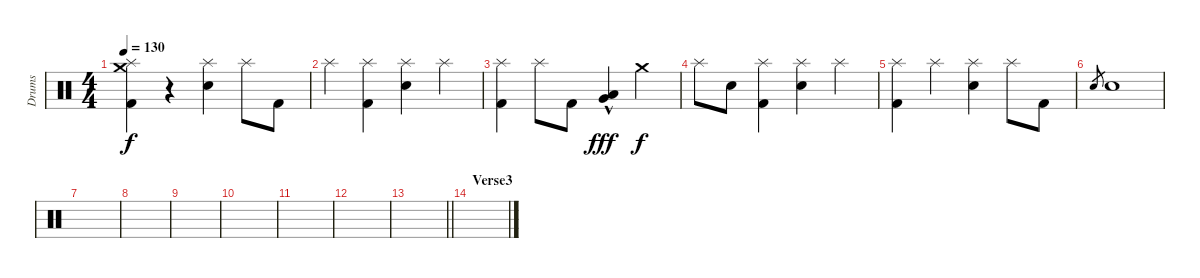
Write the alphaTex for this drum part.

\track ("Drums" "Drums") {instrument percussion}
\staff {score}
\articulation defaults
\ts (4 4)
\tempo 130
\clef neutral
\ks c
("Kick (hit) 2" "Splash (hit)" "Crash medium (hit)").4{dy f} r.4 ("Electric Snare (hit)" "Splash (hit)").4 "Splash (hit)".8 "Kick (hit) 2".8 |
"Splash (hit)".4 ("Splash (hit)" "Kick (hit) 2").4 ("Splash (hit)" "Electric Snare (hit)").4 "Splash (hit)".4 |
("Splash (hit)" "Kick (hit) 2").4 "Splash (hit)".8 "Kick (hit) 2".8 ("Very Low Tom (hit)"{hac} "Low Floor Tom (hit)"{hac}).4{dy fff} "Crash medium (hit)".4{dy f} |
"Splash (hit)".8 "Electric Snare (hit)".8 ("Splash (hit)" "Kick (hit) 2").4 ("Splash (hit)" "Electric Snare (hit)").4 "Splash (hit)".4 |
("Splash (hit)" "Kick (hit) 2").4 "Splash (hit)".4 ("Splash (hit)" "Electric Snare (hit)").4 "Splash (hit)".8 "Kick (hit) 2".8 |
"Electric Snare (hit)".8{gr} "Electric Snare (hit)".1 |
|
|
|
|
|
|
\barLineRight lightlight
|
\section ("" "Verse3")
